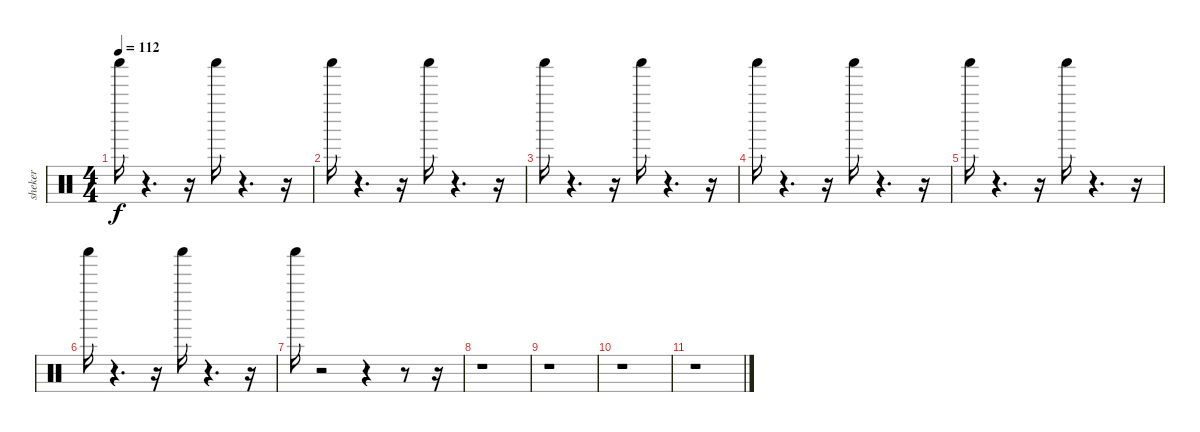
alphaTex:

\track ("sheker" "sheker") {instrument percussion}
\staff {score}
\articulation defaults
\ts (4 4)
\tempo 112
\clef neutral
\ks c "Shaker (hit)".16{dy f}
r.4{d} r.16 "Shaker (hit)".16 r.4{d} r.16 |
"Shaker (hit)".16 r.4{d} r.16 "Shaker (hit)".16 r.4{d} r.16 |
"Shaker (hit)".16 r.4{d} r.16 "Shaker (hit)".16 r.4{d} r.16 |
"Shaker (hit)".16 r.4{d} r.16 "Shaker (hit)".16 r.4{d} r.16 |
"Shaker (hit)".16 r.4{d} r.16 "Shaker (hit)".16 r.4{d} r.16 |
"Shaker (hit)".16 r.4{d} r.16 "Shaker (hit)".16 r.4{d} r.16 |
"Shaker (hit)".16 r.2 r.4 r.8 r.16 |
r.1 |
r.1 |
r.1 |
r.1
